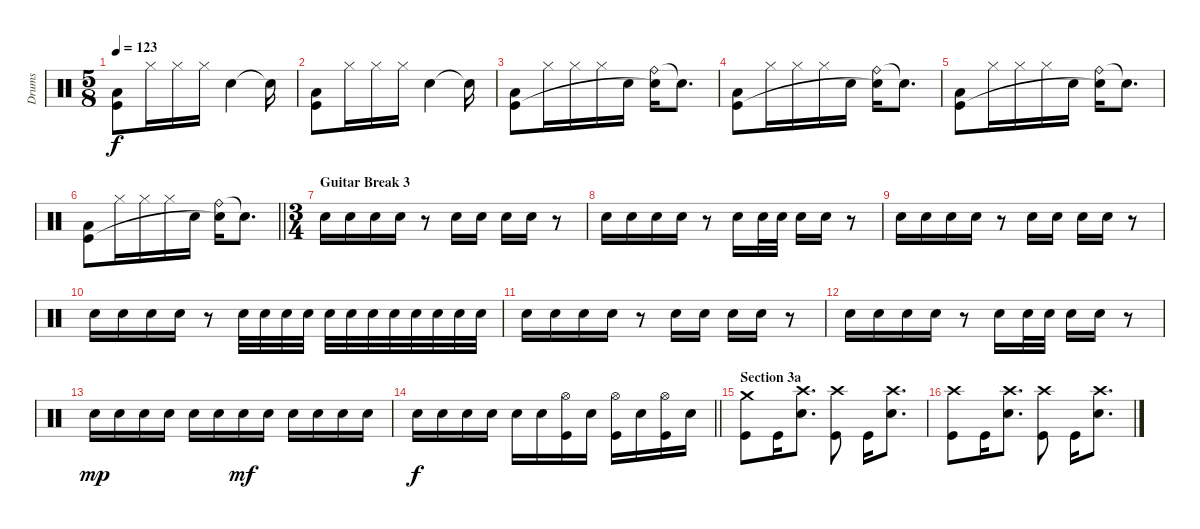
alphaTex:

\track ("Drums" "Drums") {instrument percussion}
\staff {score}
\articulation defaults
\ts (5 8)
\tempo 123
\clef neutral
\ks c
("Low Tom (hit)" "Kick (hit)").8{dy f} "Hi-Hat (closed)".16 "Hi-Hat (closed)".16 "Hi-Hat (closed)".16 "Snare (hit) 2".4 "Snare (hit)"{t}.16 |
("Low Tom (hit)" "Kick (hit)").8 "Hi-Hat (closed)".16 "Hi-Hat (closed)".16 "Hi-Hat (closed)".16 "Snare (hit) 2".4 "Snare (hit)"{t}.16 |
("Low Tom (hit)" "Kick (hit)").8 "Hi-Hat (closed)".16 "Hi-Hat (closed)".16 "Hi-Hat (closed)".16 "Snare (hit) 2".16 ("Ride (bell)" "Snare (hit)"{t}).16 "Snare (hit)"{t}.8{d} |
("Low Tom (hit)" "Kick (hit)").8 "Hi-Hat (closed)".16 "Hi-Hat (closed)".16 "Hi-Hat (closed)".16 "Snare (hit) 2".16 ("Ride (bell)" "Snare (hit)"{t}).16 "Snare (hit)"{t}.8{d} |
("Low Tom (hit)" "Kick (hit)").8 "Hi-Hat (closed)".16 "Hi-Hat (closed)".16 "Hi-Hat (closed)".16 "Snare (hit) 2".16 ("Ride (bell)" "Snare (hit)"{t}).16 "Snare (hit)"{t}.8{d} |
\barLineRight lightlight
("Low Tom (hit)" "Kick (hit)").8 "Hi-Hat (closed)".16 "Hi-Hat (closed)".16 "Hi-Hat (closed)".16 "Snare (hit) 2".16 ("Ride (bell)" "Snare (hit)"{t}).16 "Snare (hit)"{t}.8{d} |
\ts (3 4)
\section ("" "Guitar Break 3")
"Snare (hit) 2".16 "Snare (hit) 2".16 "Snare (hit) 2".16 "Snare (hit) 2".16 r.8 "Snare (hit) 2".16 "Snare (hit) 2".16 "Snare (hit) 2".16 "Snare (hit) 2".16 r.8 |
"Snare (hit) 2".16 "Snare (hit) 2".16 "Snare (hit) 2".16 "Snare (hit) 2".16 r.8 "Snare (hit) 2".16 "Snare (hit) 2".32 "Snare (hit) 2".32 "Snare (hit) 2".16 "Snare (hit) 2".16 r.8 |
"Snare (hit) 2".16 "Snare (hit) 2".16 "Snare (hit) 2".16 "Snare (hit) 2".16 r.8 "Snare (hit) 2".16 "Snare (hit) 2".16 "Snare (hit) 2".16 "Snare (hit) 2".16 r.8 |
"Snare (hit) 2".16 "Snare (hit) 2".16 "Snare (hit) 2".16 "Snare (hit) 2".16 r.8 "Snare (hit) 2".32 "Snare (hit) 2".32 "Snare (hit) 2".32 "Snare (hit) 2".32 "Snare (hit) 2".32 "Snare (hit) 2".32 "Snare (hit) 2".32 "Snare (hit) 2".32 "Snare (hit) 2".32 "Snare (hit) 2".32 "Snare (hit) 2".32 "Snare (hit) 2".32 |
"Snare (hit) 2".16 "Snare (hit) 2".16 "Snare (hit) 2".16 "Snare (hit) 2".16 r.8 "Snare (hit) 2".16 "Snare (hit) 2".16 "Snare (hit) 2".16 "Snare (hit) 2".16 r.8 |
"Snare (hit) 2".16 "Snare (hit) 2".16 "Snare (hit) 2".16 "Snare (hit) 2".16 r.8 "Snare (hit) 2".16 "Snare (hit) 2".32 "Snare (hit) 2".32 "Snare (hit) 2".16 "Snare (hit) 2".16 r.8 |
"Snare (hit) 2".16{dy mp} "Snare (hit) 2".16 "Snare (hit) 2".16 "Snare (hit) 2".16 "Snare (hit) 2".16 "Snare (hit) 2".16 "Snare (hit) 2".16{dy mf} "Snare (hit) 2".16 "Snare (hit) 2".16 "Snare (hit) 2".16 "Snare (hit) 2".16 "Snare (hit) 2".16 |
\barLineRight lightlight "Snare (hit) 2".16{dy f} "Snare (hit) 2".16 "Snare (hit) 2".16 "Snare (hit) 2".16 "Snare (hit) 2".16 "Snare (hit) 2".16
("Hi-Hat (open)" "Kick (hit)").16 "Snare (hit) 2".16 ("Hi-Hat (open)" "Kick (hit)").16 "Snare (hit) 2".16 ("Hi-Hat (open)" "Kick (hit)").16 "Snare (hit) 2".16 |
\section ("" "Section 3a")
("Crash medium (hit)" "Kick (hit)").8 "Kick (hit)".16 ("Crash high (hit)" "Snare (hit) 2").8{d} ("Crash high (hit)" "Kick (hit)").8 "Kick (hit)".16 ("Crash high (hit)" "Snare (hit) 2").8{d} |
("Crash high (hit)" "Kick (hit)").8 "Kick (hit)".16 ("Crash high (hit)" "Snare (hit) 2").8{d} ("Crash high (hit)" "Kick (hit)").8 "Kick (hit)".16 ("Crash high (hit)" "Snare (hit) 2").8{d}
